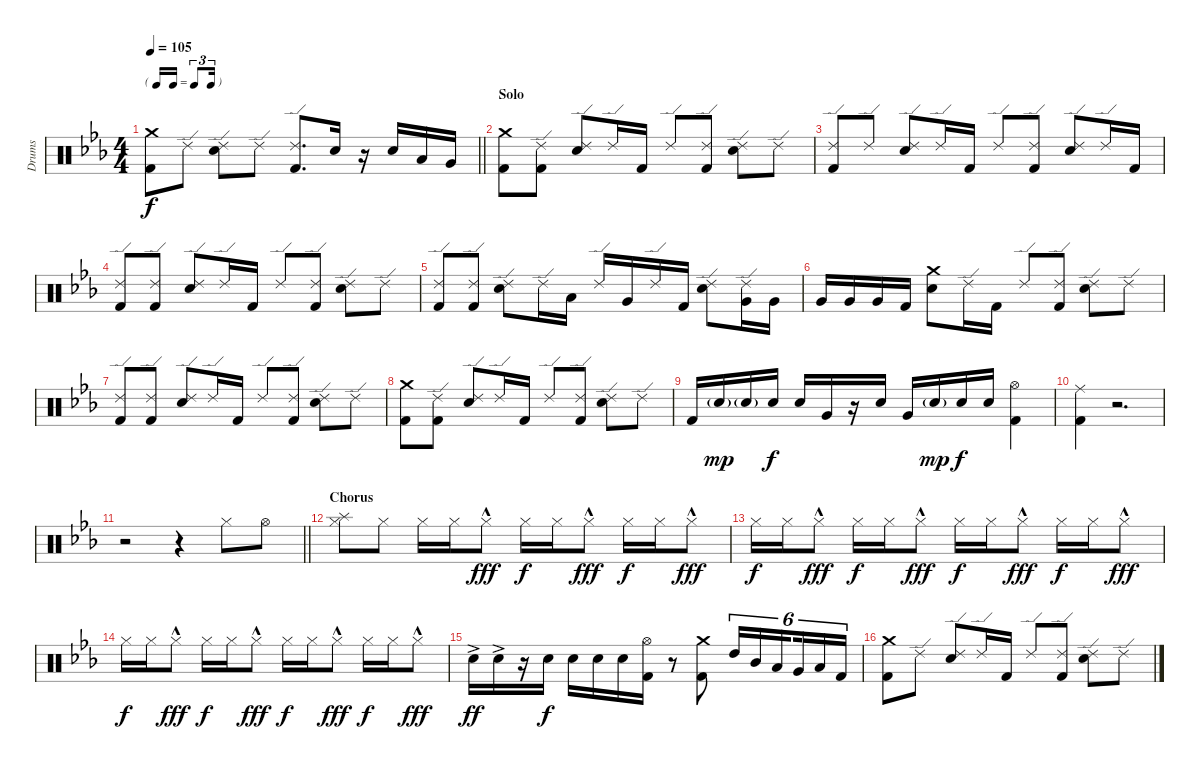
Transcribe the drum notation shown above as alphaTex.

\track ("Drums" "Drums") {instrument percussion}
\staff {score}
\articulation defaults
\ts (4 4)
\tf triplet16th
\tempo 105
\clef neutral
\barLineRight lightlight
\ks eb
("Crash medium (hit)" "Kick (hit) 2").8{dy f} "Ride (edge) 2".8 ("Ride (edge) 2" "Snare (hit) 2").8 "Ride (edge) 2".8 ("Ride (edge) 2" "Kick (hit) 2").8{d} "Snare (hit) 2".16 r.16 "Snare (hit) 2".16 "Low Tom (hit)".16 "Very Low Tom (hit)".16 |
\section ("" "Solo")
("Crash medium (hit)" "Kick (hit) 2").8 ("Ride (edge) 2" "Kick (hit) 2").8 ("Ride (edge) 2" "Snare (hit) 2").8 "Ride (edge) 2".16 "Kick (hit) 2".16 "Ride (edge) 2".8 ("Ride (edge) 2" "Kick (hit) 2").8 ("Ride (edge) 2" "Snare (hit) 2").8 "Ride (edge) 2".8 |
("Ride (edge) 2" "Kick (hit) 2").8 "Ride (edge) 2".8 ("Ride (edge) 2" "Snare (hit) 2").8 "Ride (edge) 2".16 "Kick (hit) 2".16 "Ride (edge) 2".8 ("Ride (edge) 2" "Kick (hit) 2").8 ("Ride (edge) 2" "Snare (hit) 2").8 "Ride (edge) 2".16 "Kick (hit) 2".16 |
("Ride (edge) 2" "Kick (hit) 2").8 ("Ride (edge) 2" "Kick (hit) 2").8 ("Ride (edge) 2" "Snare (hit) 2").8 "Ride (edge) 2".16 "Kick (hit) 2".16 "Ride (edge) 2".8 ("Ride (edge) 2" "Kick (hit) 2").8 ("Ride (edge) 2" "Snare (hit) 2").8 "Ride (edge) 2".8 |
("Ride (edge) 2" "Kick (hit) 2").8 ("Ride (edge) 2" "Kick (hit) 2").8 ("Ride (edge) 2" "Snare (hit) 2").8 "Ride (edge) 2".16 "Low Tom (hit)".16 "Ride (edge) 2".16 "Very Low Tom (hit)".16 "Ride (edge) 2".16 "Kick (hit) 2".16 ("Ride (edge) 2" "Snare (hit) 2").8 ("Ride (edge) 2" "Very Low Tom (hit)").16 "Very Low Tom (hit)".16 |
"Very Low Tom (hit)".16 "Very Low Tom (hit)".16 "Very Low Tom (hit)".16 "Kick (hit) 2".16 ("Crash medium (hit)" "Snare (hit) 2").8 "Ride (edge) 2".16 "Kick (hit) 2".16 "Ride (edge) 2".8 ("Ride (edge) 2" "Kick (hit) 2").8 ("Ride (edge) 2" "Snare (hit) 2").8 "Ride (edge) 2".8 |
("Ride (edge) 2" "Kick (hit) 2").8 ("Ride (edge) 2" "Kick (hit) 2").8 ("Ride (edge) 2" "Snare (hit) 2").8 "Ride (edge) 2".16 "Kick (hit) 2".16 "Ride (edge) 2".8 ("Ride (edge) 2" "Kick (hit) 2").8 ("Ride (edge) 2" "Snare (hit) 2").8 "Ride (edge) 2".8 |
("Crash medium (hit)" "Kick (hit) 2").8 ("Ride (edge) 2" "Kick (hit) 2").8 ("Ride (edge) 2" "Snare (hit) 2").8 "Ride (edge) 2".16 "Kick (hit) 2".16 "Ride (edge) 2".8 ("Ride (edge) 2" "Kick (hit) 2").8 ("Ride (edge) 2" "Snare (hit) 2").8 "Ride (edge) 2".8 |
"Kick (hit) 2".16 "Snare (hit) 2"{g}.16{dy mp} "Snare (hit) 2"{g}.16 "Snare (hit) 2".16{dy f} "Snare (hit) 2".16 "Very Low Tom (hit)".16 r.16 "Snare (hit) 2".16 "Very Low Tom (hit)".16 "Snare (hit) 2"{g}.16{dy mp} "Snare (hit) 2".16{dy f} "Snare (hit) 2".16 ("Hi-Hat (open)" "Kick (hit) 2").4 |
("Ride (middle)" "Kick (hit) 2").4 r.2{d} |
\barLineRight lightlight
r.2 r.4 "Hi-Hat (closed)".8 "Hi-Hat (open)".8 |
\section ("" "Chorus")
("Hi-Hat (closed)" "Splash (hit)").8 "Hi-Hat (closed)".8 "Hi-Hat (closed)".16 "Hi-Hat (closed)".16 "Hi-Hat (closed)"{hac}.8{dy fff} "Hi-Hat (closed)".16{dy f} "Hi-Hat (closed)".16 "Hi-Hat (closed)"{hac}.8{dy fff} "Hi-Hat (closed)".16{dy f} "Hi-Hat (closed)".16 "Hi-Hat (closed)"{hac}.8{dy fff} |
"Hi-Hat (closed)".16{dy f} "Hi-Hat (closed)".16 "Hi-Hat (closed)"{hac}.8{dy fff} "Hi-Hat (closed)".16{dy f} "Hi-Hat (closed)".16 "Hi-Hat (closed)"{hac}.8{dy fff} "Hi-Hat (closed)".16{dy f} "Hi-Hat (closed)".16 "Hi-Hat (closed)"{hac}.8{dy fff} "Hi-Hat (closed)".16{dy f} "Hi-Hat (closed)".16 "Hi-Hat (closed)"{hac}.8{dy fff} |
"Hi-Hat (closed)".16{dy f} "Hi-Hat (closed)".16 "Hi-Hat (closed)"{hac}.8{dy fff} "Hi-Hat (closed)".16{dy f} "Hi-Hat (closed)".16 "Hi-Hat (closed)"{hac}.8{dy fff} "Hi-Hat (closed)".16{dy f} "Hi-Hat (closed)".16 "Hi-Hat (closed)"{hac}.8{dy fff} "Hi-Hat (closed)".16{dy f} "Hi-Hat (closed)".16 "Hi-Hat (closed)"{hac}.8{dy fff} |
"Snare (hit) 2"{ac}.16{dy ff} "Snare (hit) 2"{ac}.16 r.16 "Snare (hit) 2".16{dy f} "Snare (hit) 2".16 "Snare (hit) 2".16 "Snare (hit) 2".16 ("Hi-Hat (open)" "Kick (hit) 2").16 r.8 ("Crash medium (hit)" "Kick (hit) 2").8 "High Tom (hit)".16{tu (6 4)} "Mid Tom (hit)".16{tu (6 4)} "Low Tom (hit)".16{tu (6 4) beam splitsecondary} "Very Low Tom (hit)".16{tu (6 4)} "Low Floor Tom (hit)".16{tu (6 4)} "Kick (hit) 2".16{tu (6 4)} |
("Crash medium (hit)" "Kick (hit) 2").8 "Ride (edge) 2".8 ("Ride (edge) 2" "Snare (hit) 2").8 "Ride (edge) 2".16 "Kick (hit) 2".16 "Ride (edge) 2".8 ("Ride (edge) 2" "Kick (hit) 2").8 ("Ride (edge) 2" "Snare (hit) 2").8 "Ride (edge) 2".8
